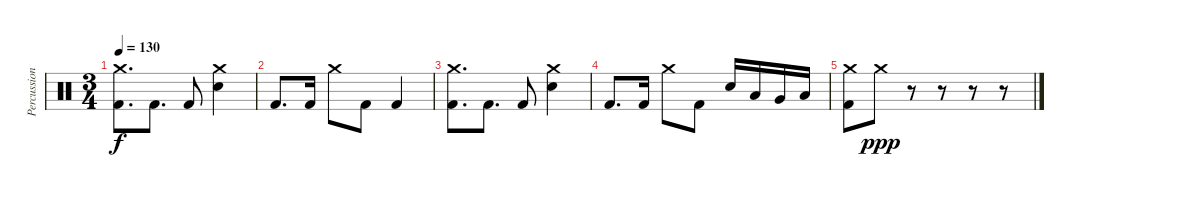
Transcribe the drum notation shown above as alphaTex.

\track ("Percussion" "Percussion") {instrument percussion}
\staff {score}
\articulation defaults
\ts (3 4)
\tempo 130
\clef neutral
\ks c
("Crash medium (hit)" "Kick (hit) 2").8{d dy f} "Kick (hit) 2".8{d} "Kick (hit) 2".8 ("Crash medium (hit)" "Electric Snare (hit)").4 |
"Kick (hit) 2".8{d} "Kick (hit) 2".16 "Crash medium (hit)".8 "Kick (hit) 2".8 "Kick (hit) 2".4 |
("Crash medium (hit)" "Kick (hit) 2").8{d} "Kick (hit) 2".8{d} "Kick (hit) 2".8 ("Crash medium (hit)" "Electric Snare (hit)").4 |
"Kick (hit) 2".8{d} "Kick (hit) 2".16 "Crash medium (hit)".8 "Kick (hit) 2".8 "Electric Snare (hit)".16 "Low Tom (hit)".16 "Very Low Tom (hit)".16 "Low Floor Tom (hit)".16 |
("Crash medium (hit)" "Kick (hit) 2").8 "Crash medium (hit)".8{dy ppp} r.8 r.8 r.8 r.8
